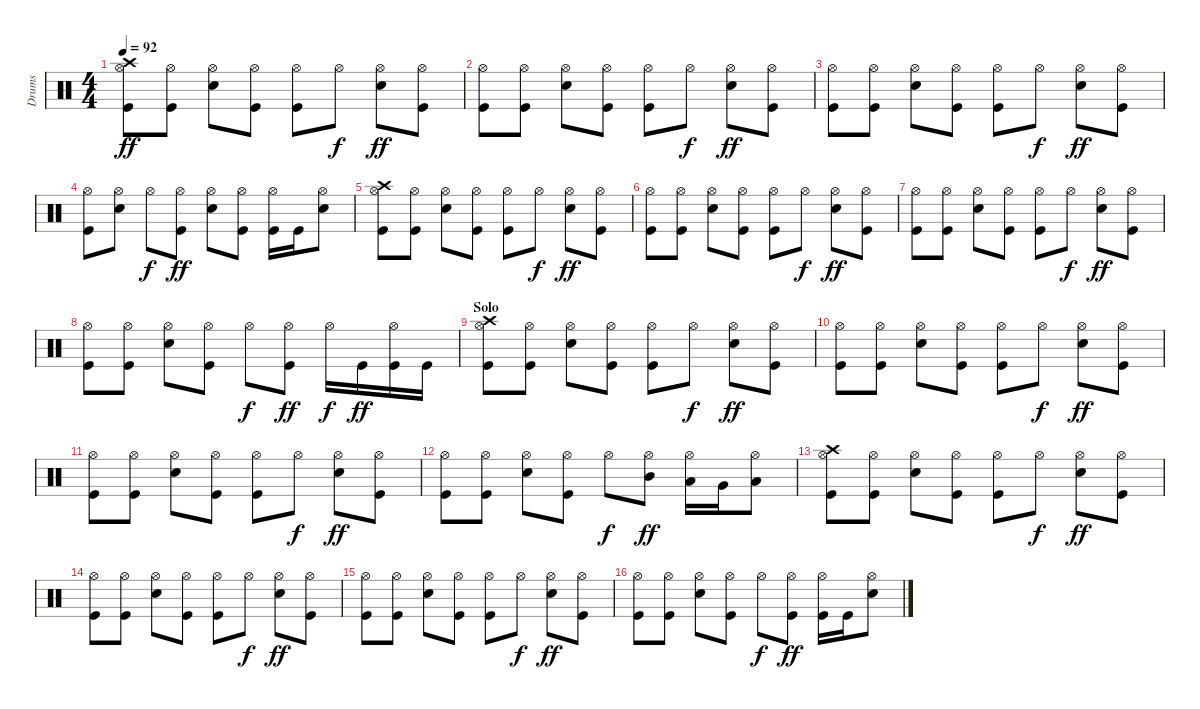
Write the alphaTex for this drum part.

\track ("Drums" "Drums") {instrument percussion}
\staff {score}
\articulation defaults
\ts (4 4)
\tempo 92
\clef neutral
\ks c
("Hi-Hat (open)" "Crash high (hit)" "Kick (hit)").8{dy ff} ("Hi-Hat (open)" "Kick (hit)").8 ("Hi-Hat (open)" "Snare (hit) 2").8 ("Hi-Hat (open)" "Kick (hit)").8 ("Hi-Hat (open)" "Kick (hit)").8 "Hi-Hat (open)".8{dy f} ("Hi-Hat (open)" "Snare (hit) 2").8{dy ff} ("Hi-Hat (open)" "Kick (hit)").8 |
("Hi-Hat (open)" "Kick (hit)").8 ("Hi-Hat (open)" "Kick (hit)").8 ("Hi-Hat (open)" "Snare (hit) 2").8 ("Hi-Hat (open)" "Kick (hit)").8 ("Hi-Hat (open)" "Kick (hit)").8 "Hi-Hat (open)".8{dy f} ("Hi-Hat (open)" "Snare (hit) 2").8{dy ff} ("Hi-Hat (open)" "Kick (hit)").8 |
("Hi-Hat (open)" "Kick (hit)").8 ("Hi-Hat (open)" "Kick (hit)").8 ("Hi-Hat (open)" "Snare (hit) 2").8 ("Hi-Hat (open)" "Kick (hit)").8 ("Hi-Hat (open)" "Kick (hit)").8 "Hi-Hat (open)".8{dy f} ("Hi-Hat (open)" "Snare (hit) 2").8{dy ff} ("Hi-Hat (open)" "Kick (hit)").8 |
("Hi-Hat (open)" "Kick (hit)").8 ("Hi-Hat (open)" "Snare (hit) 2").8 "Hi-Hat (open)".8{dy f} ("Hi-Hat (open)" "Kick (hit)").8{dy ff} ("Hi-Hat (open)" "Snare (hit) 2").8 ("Hi-Hat (open)" "Kick (hit)").8 ("Hi-Hat (open)" "Kick (hit)").16 "Kick (hit)".16 ("Hi-Hat (open)" "Snare (hit) 2").8 |
("Hi-Hat (open)" "Crash high (hit)" "Kick (hit)").8 ("Hi-Hat (open)" "Kick (hit)").8 ("Hi-Hat (open)" "Snare (hit) 2").8 ("Hi-Hat (open)" "Kick (hit)").8 ("Hi-Hat (open)" "Kick (hit)").8 "Hi-Hat (open)".8{dy f} ("Hi-Hat (open)" "Snare (hit) 2").8{dy ff} ("Hi-Hat (open)" "Kick (hit)").8 |
("Hi-Hat (open)" "Kick (hit)").8 ("Hi-Hat (open)" "Kick (hit)").8 ("Hi-Hat (open)" "Snare (hit) 2").8 ("Hi-Hat (open)" "Kick (hit)").8 ("Hi-Hat (open)" "Kick (hit)").8 "Hi-Hat (open)".8{dy f} ("Hi-Hat (open)" "Snare (hit) 2").8{dy ff} ("Hi-Hat (open)" "Kick (hit)").8 |
("Hi-Hat (open)" "Kick (hit)").8 ("Hi-Hat (open)" "Kick (hit)").8 ("Hi-Hat (open)" "Snare (hit) 2").8 ("Hi-Hat (open)" "Kick (hit)").8 ("Hi-Hat (open)" "Kick (hit)").8 "Hi-Hat (open)".8{dy f} ("Hi-Hat (open)" "Snare (hit) 2").8{dy ff} ("Hi-Hat (open)" "Kick (hit)").8 |
("Hi-Hat (open)" "Kick (hit)").8 ("Hi-Hat (open)" "Kick (hit)").8 ("Hi-Hat (open)" "Snare (hit) 2").8 ("Hi-Hat (open)" "Kick (hit)").8 "Hi-Hat (open)".8{dy f} ("Hi-Hat (open)" "Kick (hit)").8{dy ff} "Hi-Hat (open)".16{dy f} "Kick (hit)".16{dy ff} ("Hi-Hat (open)" "Kick (hit)").16 "Kick (hit)".16 |
\section ("" "Solo")
("Hi-Hat (open)" "Crash high (hit)" "Kick (hit)").8 ("Hi-Hat (open)" "Kick (hit)").8 ("Hi-Hat (open)" "Snare (hit) 2").8 ("Hi-Hat (open)" "Kick (hit)").8 ("Hi-Hat (open)" "Kick (hit)").8 "Hi-Hat (open)".8{dy f} ("Hi-Hat (open)" "Snare (hit) 2").8{dy ff} ("Hi-Hat (open)" "Kick (hit)").8 |
("Hi-Hat (open)" "Kick (hit)").8 ("Hi-Hat (open)" "Kick (hit)").8 ("Hi-Hat (open)" "Snare (hit) 2").8 ("Hi-Hat (open)" "Kick (hit)").8 ("Hi-Hat (open)" "Kick (hit)").8 "Hi-Hat (open)".8{dy f} ("Hi-Hat (open)" "Snare (hit) 2").8{dy ff} ("Hi-Hat (open)" "Kick (hit)").8 |
("Hi-Hat (open)" "Kick (hit)").8 ("Hi-Hat (open)" "Kick (hit)").8 ("Hi-Hat (open)" "Snare (hit) 2").8 ("Hi-Hat (open)" "Kick (hit)").8 ("Hi-Hat (open)" "Kick (hit)").8 "Hi-Hat (open)".8{dy f} ("Hi-Hat (open)" "Snare (hit) 2").8{dy ff} ("Hi-Hat (open)" "Kick (hit)").8 |
("Hi-Hat (open)" "Kick (hit)").8 ("Hi-Hat (open)" "Kick (hit)").8 ("Hi-Hat (open)" "Snare (hit) 2").8 ("Hi-Hat (open)" "Kick (hit)").8 "Hi-Hat (open)".8{dy f} ("Hi-Hat (open)" "Mid Tom (hit)").8{dy ff} ("Hi-Hat (open)" "Low Tom (hit)").16 "Very Low Tom (hit)".16 ("Hi-Hat (open)" "Low Floor Tom (hit)").8 |
("Hi-Hat (open)" "Crash high (hit)" "Kick (hit)").8 ("Hi-Hat (open)" "Kick (hit)").8 ("Hi-Hat (open)" "Snare (hit) 2").8 ("Hi-Hat (open)" "Kick (hit)").8 ("Hi-Hat (open)" "Kick (hit)").8 "Hi-Hat (open)".8{dy f} ("Hi-Hat (open)" "Snare (hit) 2").8{dy ff} ("Hi-Hat (open)" "Kick (hit)").8 |
("Hi-Hat (open)" "Kick (hit)").8 ("Hi-Hat (open)" "Kick (hit)").8 ("Hi-Hat (open)" "Snare (hit) 2").8 ("Hi-Hat (open)" "Kick (hit)").8 ("Hi-Hat (open)" "Kick (hit)").8 "Hi-Hat (open)".8{dy f} ("Hi-Hat (open)" "Snare (hit) 2").8{dy ff} ("Hi-Hat (open)" "Kick (hit)").8 |
("Hi-Hat (open)" "Kick (hit)").8 ("Hi-Hat (open)" "Kick (hit)").8 ("Hi-Hat (open)" "Snare (hit) 2").8 ("Hi-Hat (open)" "Kick (hit)").8 ("Hi-Hat (open)" "Kick (hit)").8 "Hi-Hat (open)".8{dy f} ("Hi-Hat (open)" "Snare (hit) 2").8{dy ff} ("Hi-Hat (open)" "Kick (hit)").8 |
("Hi-Hat (open)" "Kick (hit)").8 ("Hi-Hat (open)" "Kick (hit)").8 ("Hi-Hat (open)" "Snare (hit) 2").8 ("Hi-Hat (open)" "Kick (hit)").8 "Hi-Hat (open)".8{dy f} ("Hi-Hat (open)" "Kick (hit)").8{dy ff} ("Hi-Hat (open)" "Kick (hit)").16 "Kick (hit)".16 ("Hi-Hat (open)" "Snare (hit) 2").8
